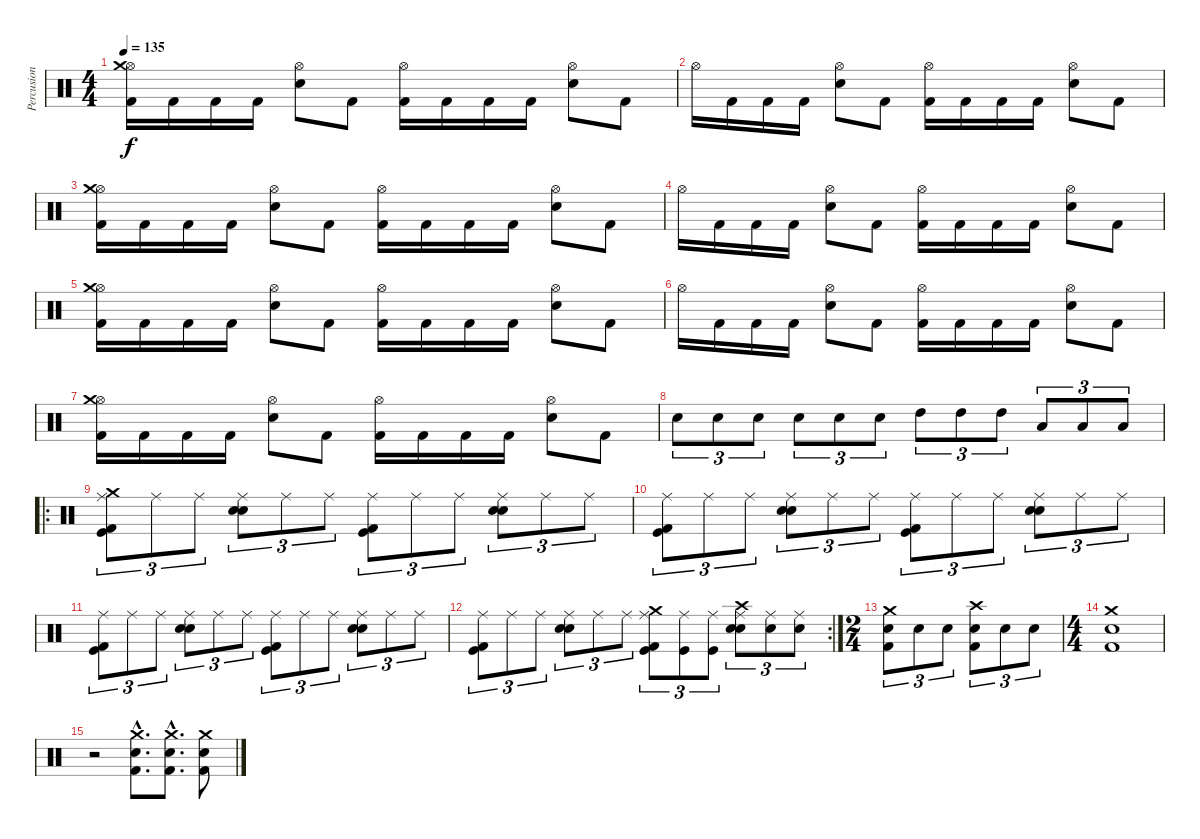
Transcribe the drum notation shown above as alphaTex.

\track ("Percusion" "Percusion") {instrument percussion}
\staff {score}
\articulation defaults
\ts (4 4)
\tempo 135
\clef neutral
\ks c
("Hi-Hat (open)" "Crash medium (hit)" "Kick (hit) 2").16{dy f} "Kick (hit) 2".16 "Kick (hit) 2".16 "Kick (hit) 2".16 ("Hi-Hat (open)" "Electric Snare (hit)").8 "Kick (hit) 2".8 ("Hi-Hat (open)" "Kick (hit) 2").16 "Kick (hit) 2".16 "Kick (hit) 2".16 "Kick (hit) 2".16 ("Hi-Hat (open)" "Electric Snare (hit)").8 "Kick (hit) 2".8 |
"Hi-Hat (open)".16 "Kick (hit) 2".16 "Kick (hit) 2".16 "Kick (hit) 2".16 ("Hi-Hat (open)" "Electric Snare (hit)").8 "Kick (hit) 2".8 ("Hi-Hat (open)" "Kick (hit) 2").16 "Kick (hit) 2".16 "Kick (hit) 2".16 "Kick (hit) 2".16 ("Hi-Hat (open)" "Electric Snare (hit)").8 "Kick (hit) 2".8 |
("Hi-Hat (open)" "Crash medium (hit)" "Kick (hit) 2").16 "Kick (hit) 2".16 "Kick (hit) 2".16 "Kick (hit) 2".16 ("Hi-Hat (open)" "Electric Snare (hit)").8 "Kick (hit) 2".8 ("Hi-Hat (open)" "Kick (hit) 2").16 "Kick (hit) 2".16 "Kick (hit) 2".16 "Kick (hit) 2".16 ("Hi-Hat (open)" "Electric Snare (hit)").8 "Kick (hit) 2".8 |
"Hi-Hat (open)".16 "Kick (hit) 2".16 "Kick (hit) 2".16 "Kick (hit) 2".16 ("Hi-Hat (open)" "Electric Snare (hit)").8 "Kick (hit) 2".8 ("Hi-Hat (open)" "Kick (hit) 2").16 "Kick (hit) 2".16 "Kick (hit) 2".16 "Kick (hit) 2".16 ("Hi-Hat (open)" "Electric Snare (hit)").8 "Kick (hit) 2".8 |
("Hi-Hat (open)" "Crash medium (hit)" "Kick (hit) 2").16 "Kick (hit) 2".16 "Kick (hit) 2".16 "Kick (hit) 2".16 ("Hi-Hat (open)" "Electric Snare (hit)").8 "Kick (hit) 2".8 ("Hi-Hat (open)" "Kick (hit) 2").16 "Kick (hit) 2".16 "Kick (hit) 2".16 "Kick (hit) 2".16 ("Hi-Hat (open)" "Electric Snare (hit)").8 "Kick (hit) 2".8 |
"Hi-Hat (open)".16 "Kick (hit) 2".16 "Kick (hit) 2".16 "Kick (hit) 2".16 ("Hi-Hat (open)" "Electric Snare (hit)").8 "Kick (hit) 2".8 ("Hi-Hat (open)" "Kick (hit) 2").16 "Kick (hit) 2".16 "Kick (hit) 2".16 "Kick (hit) 2".16 ("Hi-Hat (open)" "Electric Snare (hit)").8 "Kick (hit) 2".8 |
("Hi-Hat (open)" "Crash medium (hit)" "Kick (hit) 2").16 "Kick (hit) 2".16 "Kick (hit) 2".16 "Kick (hit) 2".16 ("Hi-Hat (open)" "Electric Snare (hit)").8 "Kick (hit) 2".8 ("Hi-Hat (open)" "Kick (hit) 2").16 "Kick (hit) 2".16 "Kick (hit) 2".16 "Kick (hit) 2".16 ("Hi-Hat (open)" "Electric Snare (hit)").8 "Kick (hit) 2".8 |
"Snare (hit) 2".8{tu (3 2)} "Snare (hit) 2".8{tu (3 2)} "Snare (hit) 2".8{tu (3 2)} "Electric Snare (hit)".8{tu (3 2)} "Electric Snare (hit)".8{tu (3 2)} "Electric Snare (hit)".8{tu (3 2)} "High Tom (hit)".8{tu (3 2)} "High Tom (hit)".8{tu (3 2)} "High Tom (hit)".8{tu (3 2)} "Low Tom (hit)".8{tu (3 2)} "Low Tom (hit)".8{tu (3 2)} "Low Tom (hit)".8{tu (3 2)} |
\ro
("Ride (middle)" "Crash medium (hit)" "Kick (hit)" "Kick (hit) 2").8{tu (3 2)} "Ride (middle)".8{tu (3 2)} "Ride (middle)".8{tu (3 2)} ("Ride (middle)" "Snare (hit) 2" "Electric Snare (hit)").8{tu (3 2)} "Ride (middle)".8{tu (3 2)} "Ride (middle)".8{tu (3 2)} ("Ride (middle)" "Kick (hit)" "Kick (hit) 2").8{tu (3 2)} "Ride (middle)".8{tu (3 2)} "Ride (middle)".8{tu (3 2)} ("Ride (middle)" "Snare (hit) 2" "Electric Snare (hit)").8{tu (3 2)} "Ride (middle)".8{tu (3 2)} "Ride (middle)".8{tu (3 2)} |
("Ride (middle)" "Kick (hit)" "Kick (hit) 2").8{tu (3 2)} "Ride (middle)".8{tu (3 2)} "Ride (middle)".8{tu (3 2)} ("Ride (middle)" "Snare (hit) 2" "Electric Snare (hit)").8{tu (3 2)} "Ride (middle)".8{tu (3 2)} "Ride (middle)".8{tu (3 2)} ("Ride (middle)" "Kick (hit)" "Kick (hit) 2").8{tu (3 2)} "Ride (middle)".8{tu (3 2)} "Ride (middle)".8{tu (3 2)} ("Ride (middle)" "Snare (hit) 2" "Electric Snare (hit)").8{tu (3 2)} "Ride (middle)".8{tu (3 2)} "Ride (middle)".8{tu (3 2)} |
("Ride (middle)" "Kick (hit)" "Kick (hit) 2").8{tu (3 2)} "Ride (middle)".8{tu (3 2)} "Ride (middle)".8{tu (3 2)} ("Ride (middle)" "Snare (hit) 2" "Electric Snare (hit)").8{tu (3 2)} "Ride (middle)".8{tu (3 2)} "Ride (middle)".8{tu (3 2)} ("Ride (middle)" "Kick (hit)" "Kick (hit) 2").8{tu (3 2)} "Ride (middle)".8{tu (3 2)} "Ride (middle)".8{tu (3 2)} ("Ride (middle)" "Snare (hit) 2" "Electric Snare (hit)").8{tu (3 2)} "Ride (middle)".8{tu (3 2)} "Ride (middle)".8{tu (3 2)} |
\rc 2
("Ride (middle)" "Kick (hit)" "Kick (hit) 2").8{tu (3 2)} "Ride (middle)".8{tu (3 2)} "Ride (middle)".8{tu (3 2)} ("Ride (middle)" "Snare (hit) 2" "Electric Snare (hit)").8{tu (3 2)} "Ride (middle)".8{tu (3 2)} "Ride (middle)".8{tu (3 2)} ("Crash medium (hit)" "Ride (middle)" "Kick (hit)" "Kick (hit) 2").8{tu (3 2)} ("Ride (middle)" "Kick (hit)").8{tu (3 2)} ("Ride (middle)" "Kick (hit)").8{tu (3 2)} ("Crash high (hit)" "Ride (middle)" "Snare (hit) 2" "Electric Snare (hit)").8{tu (3 2)} ("Ride (middle)" "Snare (hit) 2").8{tu (3 2)} ("Ride (middle)" "Snare (hit) 2").8{tu (3 2)} |
\ts (2 4)
("Crash medium (hit)" "Snare (hit) 2" "Kick (hit) 2").8{tu (3 2)} "Snare (hit) 2".8{tu (3 2)} "Snare (hit) 2".8{tu (3 2)} ("Crash high (hit)" "Snare (hit) 2" "Kick (hit) 2").8{tu (3 2)} "Snare (hit) 2".8{tu (3 2)} "Snare (hit) 2".8{tu (3 2)} |
\ts (4 4)
("Crash medium (hit)" "Electric Snare (hit)" "Kick (hit) 2").1 |
r.2 ("Crash medium (hit)"{hac} "Electric Snare (hit)"{hac} "Kick (hit) 2"{hac}).8{d} ("Crash medium (hit)"{hac} "Electric Snare (hit)"{hac} "Kick (hit) 2"{hac}).8{d} ("Crash medium (hit)" "Electric Snare (hit)" "Kick (hit) 2").8
